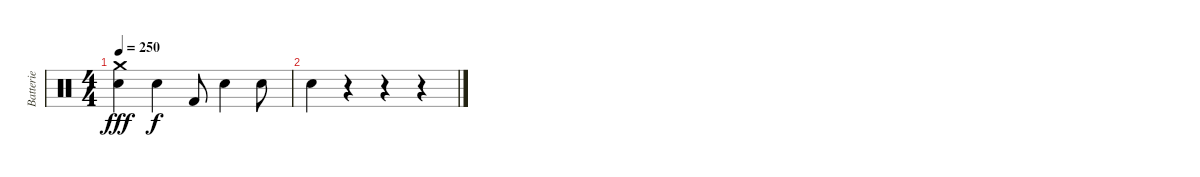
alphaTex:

\track ("Batterie" "Batterie") {instrument percussion}
\staff {score}
\articulation defaults
\ts (4 4)
\tempo 250
\clef neutral
\ks c
("Crash medium (hit)" "Electric Snare (hit)").4{dy fff} "Electric Snare (hit)".4{dy f} "Kick (hit) 2".8 "Electric Snare (hit)".4 "Electric Snare (hit)".8 |
"Electric Snare (hit)".4 r.4 r.4 r.4
